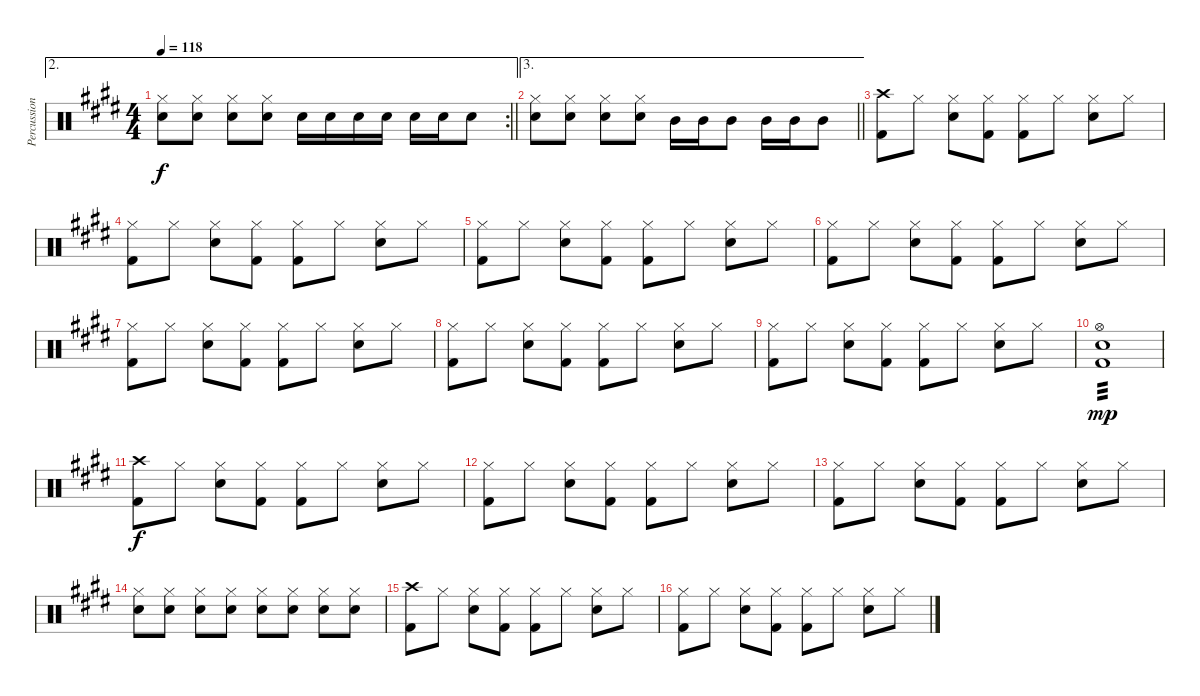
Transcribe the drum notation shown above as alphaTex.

\track ("Percussion" "Percussion") {instrument percussion}
\staff {score}
\articulation defaults
\ae 2
\rc 2
\ts (4 4)
\tempo 118
\clef neutral
\barLineRight lightlight
\ks e
("Hi-Hat (closed)" "Snare (hit) 2").8{dy f} ("Hi-Hat (closed)" "Snare (hit) 2").8 ("Hi-Hat (closed)" "Snare (hit) 2").8 ("Hi-Hat (closed)" "Snare (hit) 2").8 "Snare (hit) 2".16 "Snare (hit) 2".16 "Snare (hit) 2".16 "Snare (hit) 2".16 "Snare (hit) 2".16 "Snare (hit) 2".16 "Snare (hit) 2".8 |
\ae 3
\barLineRight lightlight
("Hi-Hat (closed)" "Snare (hit) 2").8 ("Hi-Hat (closed)" "Snare (hit) 2").8 ("Hi-Hat (closed)" "Snare (hit) 2").8 ("Hi-Hat (closed)" "Snare (hit) 2").8 "Mid Tom (hit)".16 "Mid Tom (hit)".16 "Mid Tom (hit)".8 "Mid Tom (hit)".16 "Mid Tom (hit)".16 "Mid Tom (hit)".8 |
("Crash high (hit)" "Kick (hit) 2").8 "Hi-Hat (closed)".8 ("Hi-Hat (closed)" "Snare (hit) 2").8 ("Hi-Hat (closed)" "Kick (hit) 2").8 ("Hi-Hat (closed)" "Kick (hit) 2").8 "Hi-Hat (closed)".8 ("Hi-Hat (closed)" "Snare (hit) 2").8 "Hi-Hat (closed)".8 |
("Hi-Hat (closed)" "Kick (hit) 2").8 "Hi-Hat (closed)".8 ("Hi-Hat (closed)" "Snare (hit) 2").8 ("Hi-Hat (closed)" "Kick (hit) 2").8 ("Hi-Hat (closed)" "Kick (hit) 2").8 "Hi-Hat (closed)".8 ("Hi-Hat (closed)" "Snare (hit) 2").8 "Hi-Hat (closed)".8 |
("Hi-Hat (closed)" "Kick (hit) 2").8 "Hi-Hat (closed)".8 ("Hi-Hat (closed)" "Snare (hit) 2").8 ("Hi-Hat (closed)" "Kick (hit) 2").8 ("Hi-Hat (closed)" "Kick (hit) 2").8 "Hi-Hat (closed)".8 ("Hi-Hat (closed)" "Snare (hit) 2").8 "Hi-Hat (closed)".8 |
("Hi-Hat (closed)" "Kick (hit) 2").8 "Hi-Hat (closed)".8 ("Hi-Hat (closed)" "Snare (hit) 2").8 ("Hi-Hat (closed)" "Kick (hit) 2").8 ("Hi-Hat (closed)" "Kick (hit) 2").8 "Hi-Hat (closed)".8 ("Hi-Hat (closed)" "Snare (hit) 2").8 "Hi-Hat (closed)".8 |
("Hi-Hat (closed)" "Kick (hit) 2").8 "Hi-Hat (closed)".8 ("Hi-Hat (closed)" "Snare (hit) 2").8 ("Hi-Hat (closed)" "Kick (hit) 2").8 ("Hi-Hat (closed)" "Kick (hit) 2").8 "Hi-Hat (closed)".8 ("Hi-Hat (closed)" "Snare (hit) 2").8 "Hi-Hat (closed)".8 |
("Hi-Hat (closed)" "Kick (hit) 2").8 "Hi-Hat (closed)".8 ("Hi-Hat (closed)" "Snare (hit) 2").8 ("Hi-Hat (closed)" "Kick (hit) 2").8 ("Hi-Hat (closed)" "Kick (hit) 2").8 "Hi-Hat (closed)".8 ("Hi-Hat (closed)" "Snare (hit) 2").8 "Hi-Hat (closed)".8 |
("Hi-Hat (closed)" "Kick (hit) 2").8 "Hi-Hat (closed)".8 ("Hi-Hat (closed)" "Snare (hit) 2").8 ("Hi-Hat (closed)" "Kick (hit) 2").8 ("Hi-Hat (closed)" "Kick (hit) 2").8 "Hi-Hat (closed)".8 ("Hi-Hat (closed)" "Snare (hit) 2").8 "Hi-Hat (closed)".8 |
("Snare (hit) 2" "Kick (hit) 2" "Hi-Hat (open)").1{tp 3 dy mp} |
("Crash high (hit)" "Kick (hit) 2").8{dy f} "Hi-Hat (closed)".8 ("Hi-Hat (closed)" "Snare (hit) 2").8 ("Hi-Hat (closed)" "Kick (hit) 2").8 ("Hi-Hat (closed)" "Kick (hit) 2").8 "Hi-Hat (closed)".8 ("Hi-Hat (closed)" "Snare (hit) 2").8 "Hi-Hat (closed)".8 |
("Hi-Hat (closed)" "Kick (hit) 2").8 "Hi-Hat (closed)".8 ("Hi-Hat (closed)" "Snare (hit) 2").8 ("Hi-Hat (closed)" "Kick (hit) 2").8 ("Hi-Hat (closed)" "Kick (hit) 2").8 "Hi-Hat (closed)".8 ("Hi-Hat (closed)" "Snare (hit) 2").8 "Hi-Hat (closed)".8 |
("Hi-Hat (closed)" "Kick (hit) 2").8 "Hi-Hat (closed)".8 ("Hi-Hat (closed)" "Snare (hit) 2").8 ("Hi-Hat (closed)" "Kick (hit) 2").8 ("Hi-Hat (closed)" "Kick (hit) 2").8 "Hi-Hat (closed)".8 ("Hi-Hat (closed)" "Snare (hit) 2").8 "Hi-Hat (closed)".8 |
("Hi-Hat (closed)" "Snare (hit) 2").8 ("Hi-Hat (closed)" "Snare (hit) 2").8 ("Hi-Hat (closed)" "Snare (hit) 2").8 ("Hi-Hat (closed)" "Snare (hit) 2").8 ("Hi-Hat (closed)" "Snare (hit) 2").8 ("Hi-Hat (closed)" "Snare (hit) 2").8 ("Hi-Hat (closed)" "Snare (hit) 2").8 ("Hi-Hat (closed)" "Snare (hit) 2").8 |
("Crash high (hit)" "Kick (hit) 2").8 "Hi-Hat (closed)".8 ("Hi-Hat (closed)" "Snare (hit) 2").8 ("Hi-Hat (closed)" "Kick (hit) 2").8 ("Hi-Hat (closed)" "Kick (hit) 2").8 "Hi-Hat (closed)".8 ("Hi-Hat (closed)" "Snare (hit) 2").8 "Hi-Hat (closed)".8 |
("Hi-Hat (closed)" "Kick (hit) 2").8 "Hi-Hat (closed)".8 ("Hi-Hat (closed)" "Snare (hit) 2").8 ("Hi-Hat (closed)" "Kick (hit) 2").8 ("Hi-Hat (closed)" "Kick (hit) 2").8 "Hi-Hat (closed)".8 ("Hi-Hat (closed)" "Snare (hit) 2").8 "Hi-Hat (closed)".8
